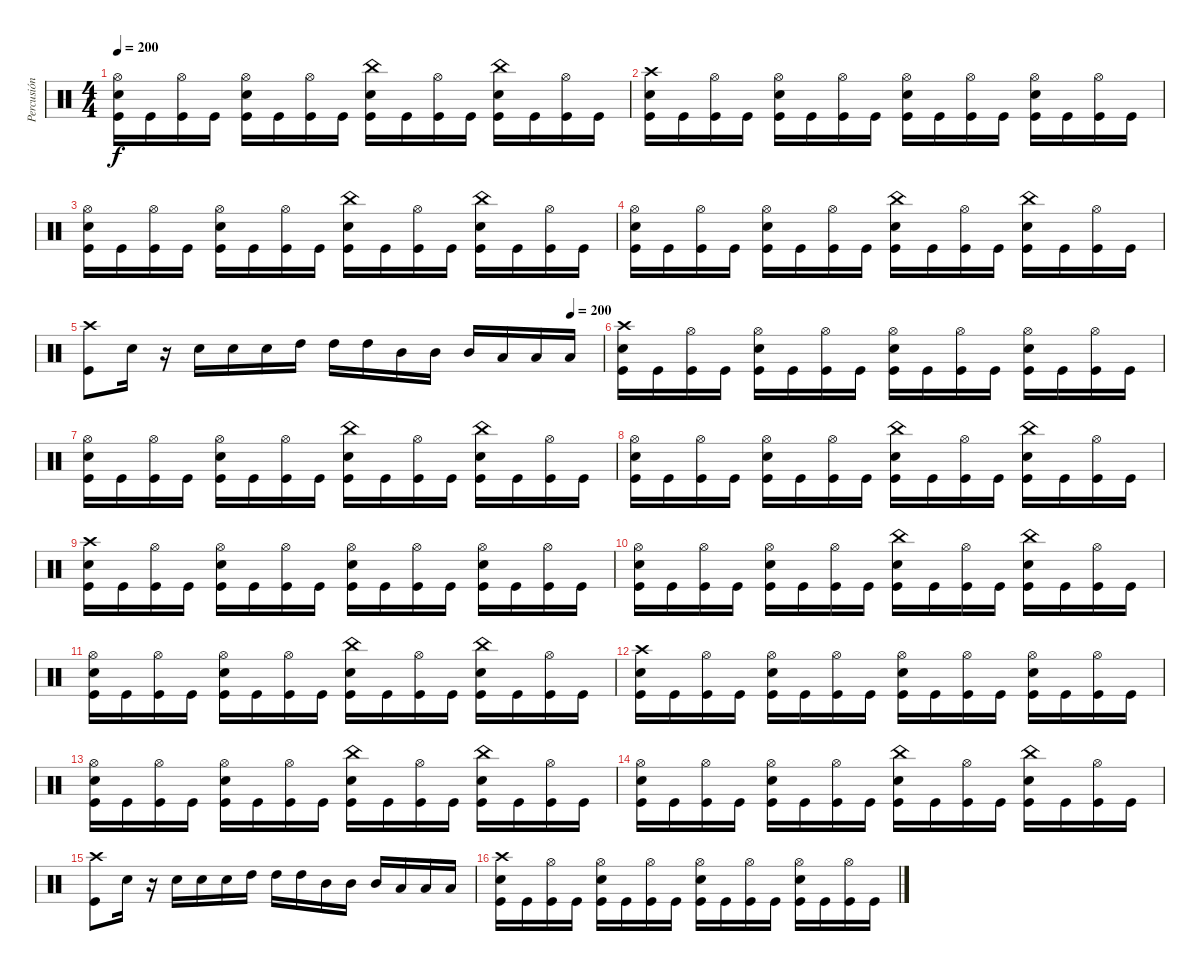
\track ("Percusión" "Percusión") {instrument percussion}
\staff {score}
\articulation defaults
\ts (4 4)
\tempo 200
\clef neutral
\ks c
("Hi-Hat (open)" "Snare (hit) 2" "Kick (hit)").16{dy f} "Kick (hit)".16 ("Hi-Hat (open)" "Kick (hit)").16 "Kick (hit)".16 ("Hi-Hat (open)" "Snare (hit) 2" "Kick (hit)").16 "Kick (hit)".16 ("Hi-Hat (open)" "Kick (hit)").16 "Kick (hit)".16 ("China (hit)" "Snare (hit) 2" "Kick (hit)").16 "Kick (hit)".16 ("Hi-Hat (open)" "Kick (hit)").16 "Kick (hit)".16 ("China (hit)" "Snare (hit) 2" "Kick (hit)").16 "Kick (hit)".16 ("Hi-Hat (open)" "Kick (hit)").16 "Kick (hit)".16 |
("Crash high (hit)" "Snare (hit) 2" "Kick (hit)").16 "Kick (hit)".16 ("Hi-Hat (open)" "Kick (hit)").16 "Kick (hit)".16 ("Hi-Hat (open)" "Snare (hit) 2" "Kick (hit)").16 "Kick (hit)".16 ("Hi-Hat (open)" "Kick (hit)").16 "Kick (hit)".16 ("Hi-Hat (open)" "Snare (hit) 2" "Kick (hit)").16 "Kick (hit)".16 ("Hi-Hat (open)" "Kick (hit)").16 "Kick (hit)".16 ("Hi-Hat (open)" "Snare (hit) 2" "Kick (hit)").16 "Kick (hit)".16 ("Hi-Hat (open)" "Kick (hit)").16 "Kick (hit)".16 |
("Hi-Hat (open)" "Snare (hit) 2" "Kick (hit)").16 "Kick (hit)".16 ("Hi-Hat (open)" "Kick (hit)").16 "Kick (hit)".16 ("Hi-Hat (open)" "Snare (hit) 2" "Kick (hit)").16 "Kick (hit)".16 ("Hi-Hat (open)" "Kick (hit)").16 "Kick (hit)".16 ("China (hit)" "Snare (hit) 2" "Kick (hit)").16 "Kick (hit)".16 ("Hi-Hat (open)" "Kick (hit)").16 "Kick (hit)".16 ("China (hit)" "Snare (hit) 2" "Kick (hit)").16 "Kick (hit)".16 ("Hi-Hat (open)" "Kick (hit)").16 "Kick (hit)".16 |
("Hi-Hat (open)" "Snare (hit) 2" "Kick (hit)").16 "Kick (hit)".16 ("Hi-Hat (open)" "Kick (hit)").16 "Kick (hit)".16 ("Hi-Hat (open)" "Snare (hit) 2" "Kick (hit)").16 "Kick (hit)".16 ("Hi-Hat (open)" "Kick (hit)").16 "Kick (hit)".16 ("China (hit)" "Snare (hit) 2" "Kick (hit)").16 "Kick (hit)".16 ("Hi-Hat (open)" "Kick (hit)").16 "Kick (hit)".16 ("China (hit)" "Snare (hit) 2" "Kick (hit)").16 "Kick (hit)".16 ("Hi-Hat (open)" "Kick (hit)").16 "Kick (hit)".16 |
\tempo (200 0.9375)
("Crash high (hit)" "Kick (hit)").8 "Snare (hit) 2".16 r.16 "Snare (hit) 2".16 "Snare (hit) 2".16 "Snare (hit) 2".16 "High Tom (hit)".16 "High Tom (hit)".16 "High Tom (hit)".16 "Mid Tom (hit)".16 "Mid Tom (hit)".16 "Mid Tom (hit)".16 "Low Tom (hit)".16 "Low Tom (hit)".16 "Low Tom (hit)".16 |
("Crash high (hit)" "Snare (hit) 2" "Kick (hit)").16 "Kick (hit)".16 ("Hi-Hat (open)" "Kick (hit)").16 "Kick (hit)".16 ("Hi-Hat (open)" "Snare (hit) 2" "Kick (hit)").16 "Kick (hit)".16 ("Hi-Hat (open)" "Kick (hit)").16 "Kick (hit)".16 ("Hi-Hat (open)" "Snare (hit) 2" "Kick (hit)").16 "Kick (hit)".16 ("Hi-Hat (open)" "Kick (hit)").16 "Kick (hit)".16 ("Hi-Hat (open)" "Snare (hit) 2" "Kick (hit)").16 "Kick (hit)".16 ("Hi-Hat (open)" "Kick (hit)").16 "Kick (hit)".16 |
("Hi-Hat (open)" "Snare (hit) 2" "Kick (hit)").16 "Kick (hit)".16 ("Hi-Hat (open)" "Kick (hit)").16 "Kick (hit)".16 ("Hi-Hat (open)" "Snare (hit) 2" "Kick (hit)").16 "Kick (hit)".16 ("Hi-Hat (open)" "Kick (hit)").16 "Kick (hit)".16 ("China (hit)" "Snare (hit) 2" "Kick (hit)").16 "Kick (hit)".16 ("Hi-Hat (open)" "Kick (hit)").16 "Kick (hit)".16 ("China (hit)" "Snare (hit) 2" "Kick (hit)").16 "Kick (hit)".16 ("Hi-Hat (open)" "Kick (hit)").16 "Kick (hit)".16 |
("Hi-Hat (open)" "Snare (hit) 2" "Kick (hit)").16 "Kick (hit)".16 ("Hi-Hat (open)" "Kick (hit)").16 "Kick (hit)".16 ("Hi-Hat (open)" "Snare (hit) 2" "Kick (hit)").16 "Kick (hit)".16 ("Hi-Hat (open)" "Kick (hit)").16 "Kick (hit)".16 ("China (hit)" "Snare (hit) 2" "Kick (hit)").16 "Kick (hit)".16 ("Hi-Hat (open)" "Kick (hit)").16 "Kick (hit)".16 ("China (hit)" "Snare (hit) 2" "Kick (hit)").16 "Kick (hit)".16 ("Hi-Hat (open)" "Kick (hit)").16 "Kick (hit)".16 |
("Crash high (hit)" "Snare (hit) 2" "Kick (hit)").16 "Kick (hit)".16 ("Hi-Hat (open)" "Kick (hit)").16 "Kick (hit)".16 ("Hi-Hat (open)" "Snare (hit) 2" "Kick (hit)").16 "Kick (hit)".16 ("Hi-Hat (open)" "Kick (hit)").16 "Kick (hit)".16 ("Hi-Hat (open)" "Snare (hit) 2" "Kick (hit)").16 "Kick (hit)".16 ("Hi-Hat (open)" "Kick (hit)").16 "Kick (hit)".16 ("Hi-Hat (open)" "Snare (hit) 2" "Kick (hit)").16 "Kick (hit)".16 ("Hi-Hat (open)" "Kick (hit)").16 "Kick (hit)".16 |
("Hi-Hat (open)" "Snare (hit) 2" "Kick (hit)").16 "Kick (hit)".16 ("Hi-Hat (open)" "Kick (hit)").16 "Kick (hit)".16 ("Hi-Hat (open)" "Snare (hit) 2" "Kick (hit)").16 "Kick (hit)".16 ("Hi-Hat (open)" "Kick (hit)").16 "Kick (hit)".16 ("China (hit)" "Snare (hit) 2" "Kick (hit)").16 "Kick (hit)".16 ("Hi-Hat (open)" "Kick (hit)").16 "Kick (hit)".16 ("China (hit)" "Snare (hit) 2" "Kick (hit)").16 "Kick (hit)".16 ("Hi-Hat (open)" "Kick (hit)").16 "Kick (hit)".16 |
("Hi-Hat (open)" "Snare (hit) 2" "Kick (hit)").16 "Kick (hit)".16 ("Hi-Hat (open)" "Kick (hit)").16 "Kick (hit)".16 ("Hi-Hat (open)" "Snare (hit) 2" "Kick (hit)").16 "Kick (hit)".16 ("Hi-Hat (open)" "Kick (hit)").16 "Kick (hit)".16 ("China (hit)" "Snare (hit) 2" "Kick (hit)").16 "Kick (hit)".16 ("Hi-Hat (open)" "Kick (hit)").16 "Kick (hit)".16 ("China (hit)" "Snare (hit) 2" "Kick (hit)").16 "Kick (hit)".16 ("Hi-Hat (open)" "Kick (hit)").16 "Kick (hit)".16 |
("Crash high (hit)" "Snare (hit) 2" "Kick (hit)").16 "Kick (hit)".16 ("Hi-Hat (open)" "Kick (hit)").16 "Kick (hit)".16 ("Hi-Hat (open)" "Snare (hit) 2" "Kick (hit)").16 "Kick (hit)".16 ("Hi-Hat (open)" "Kick (hit)").16 "Kick (hit)".16 ("Hi-Hat (open)" "Snare (hit) 2" "Kick (hit)").16 "Kick (hit)".16 ("Hi-Hat (open)" "Kick (hit)").16 "Kick (hit)".16 ("Hi-Hat (open)" "Snare (hit) 2" "Kick (hit)").16 "Kick (hit)".16 ("Hi-Hat (open)" "Kick (hit)").16 "Kick (hit)".16 |
("Hi-Hat (open)" "Snare (hit) 2" "Kick (hit)").16 "Kick (hit)".16 ("Hi-Hat (open)" "Kick (hit)").16 "Kick (hit)".16 ("Hi-Hat (open)" "Snare (hit) 2" "Kick (hit)").16 "Kick (hit)".16 ("Hi-Hat (open)" "Kick (hit)").16 "Kick (hit)".16 ("China (hit)" "Snare (hit) 2" "Kick (hit)").16 "Kick (hit)".16 ("Hi-Hat (open)" "Kick (hit)").16 "Kick (hit)".16 ("China (hit)" "Snare (hit) 2" "Kick (hit)").16 "Kick (hit)".16 ("Hi-Hat (open)" "Kick (hit)").16 "Kick (hit)".16 |
("Hi-Hat (open)" "Snare (hit) 2" "Kick (hit)").16 "Kick (hit)".16 ("Hi-Hat (open)" "Kick (hit)").16 "Kick (hit)".16 ("Hi-Hat (open)" "Snare (hit) 2" "Kick (hit)").16 "Kick (hit)".16 ("Hi-Hat (open)" "Kick (hit)").16 "Kick (hit)".16 ("China (hit)" "Snare (hit) 2" "Kick (hit)").16 "Kick (hit)".16 ("Hi-Hat (open)" "Kick (hit)").16 "Kick (hit)".16 ("China (hit)" "Snare (hit) 2" "Kick (hit)").16 "Kick (hit)".16 ("Hi-Hat (open)" "Kick (hit)").16 "Kick (hit)".16 |
("Crash high (hit)" "Kick (hit)").8 "Snare (hit) 2".16 r.16 "Snare (hit) 2".16 "Snare (hit) 2".16 "Snare (hit) 2".16 "High Tom (hit)".16 "High Tom (hit)".16 "High Tom (hit)".16 "Mid Tom (hit)".16 "Mid Tom (hit)".16 "Mid Tom (hit)".16 "Low Tom (hit)".16 "Low Tom (hit)".16 "Low Tom (hit)".16 |
("Crash high (hit)" "Snare (hit) 2" "Kick (hit)").16 "Kick (hit)".16 ("Hi-Hat (open)" "Kick (hit)").16 "Kick (hit)".16 ("Hi-Hat (open)" "Snare (hit) 2" "Kick (hit)").16 "Kick (hit)".16 ("Hi-Hat (open)" "Kick (hit)").16 "Kick (hit)".16 ("Hi-Hat (open)" "Snare (hit) 2" "Kick (hit)").16 "Kick (hit)".16 ("Hi-Hat (open)" "Kick (hit)").16 "Kick (hit)".16 ("Hi-Hat (open)" "Snare (hit) 2" "Kick (hit)").16 "Kick (hit)".16 ("Hi-Hat (open)" "Kick (hit)").16 "Kick (hit)".16
